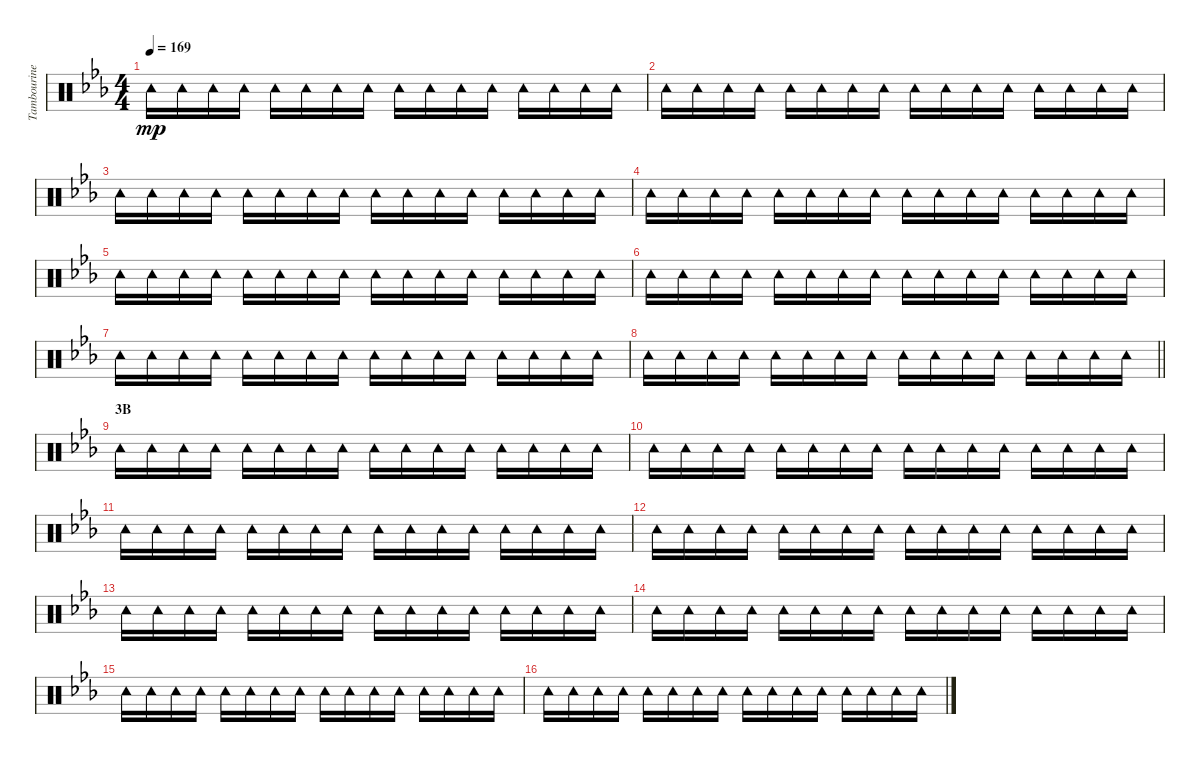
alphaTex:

\track ("Tambourine" "Tambourine") {instrument percussion}
\staff {score}
\articulation defaults
\ts (4 4)
\tempo 169
\clef neutral
\ks eb "Tambourine (hit)".16{dy mp} "Tambourine (hit)".16 "Tambourine (hit)".16 "Tambourine (hit)".16 "Tambourine (hit)".16 "Tambourine (hit)".16 "Tambourine (hit)".16 "Tambourine (hit)".16 "Tambourine (hit)".16 "Tambourine (hit)".16 "Tambourine (hit)".16 "Tambourine (hit)".16 "Tambourine (hit)".16 "Tambourine (hit)".16 "Tambourine (hit)".16 "Tambourine (hit)".16
|
"Tambourine (hit)".16 "Tambourine (hit)".16 "Tambourine (hit)".16 "Tambourine (hit)".16 "Tambourine (hit)".16 "Tambourine (hit)".16 "Tambourine (hit)".16 "Tambourine (hit)".16 "Tambourine (hit)".16 "Tambourine (hit)".16 "Tambourine (hit)".16 "Tambourine (hit)".16 "Tambourine (hit)".16 "Tambourine (hit)".16 "Tambourine (hit)".16 "Tambourine (hit)".16 |
"Tambourine (hit)".16 "Tambourine (hit)".16 "Tambourine (hit)".16 "Tambourine (hit)".16 "Tambourine (hit)".16 "Tambourine (hit)".16 "Tambourine (hit)".16 "Tambourine (hit)".16 "Tambourine (hit)".16 "Tambourine (hit)".16 "Tambourine (hit)".16 "Tambourine (hit)".16 "Tambourine (hit)".16 "Tambourine (hit)".16 "Tambourine (hit)".16 "Tambourine (hit)".16 |
"Tambourine (hit)".16 "Tambourine (hit)".16 "Tambourine (hit)".16 "Tambourine (hit)".16 "Tambourine (hit)".16 "Tambourine (hit)".16 "Tambourine (hit)".16 "Tambourine (hit)".16 "Tambourine (hit)".16 "Tambourine (hit)".16 "Tambourine (hit)".16 "Tambourine (hit)".16 "Tambourine (hit)".16 "Tambourine (hit)".16 "Tambourine (hit)".16 "Tambourine (hit)".16 |
"Tambourine (hit)".16 "Tambourine (hit)".16 "Tambourine (hit)".16 "Tambourine (hit)".16 "Tambourine (hit)".16 "Tambourine (hit)".16 "Tambourine (hit)".16 "Tambourine (hit)".16 "Tambourine (hit)".16 "Tambourine (hit)".16 "Tambourine (hit)".16 "Tambourine (hit)".16 "Tambourine (hit)".16 "Tambourine (hit)".16 "Tambourine (hit)".16 "Tambourine (hit)".16 |
"Tambourine (hit)".16 "Tambourine (hit)".16 "Tambourine (hit)".16 "Tambourine (hit)".16 "Tambourine (hit)".16 "Tambourine (hit)".16 "Tambourine (hit)".16 "Tambourine (hit)".16 "Tambourine (hit)".16 "Tambourine (hit)".16 "Tambourine (hit)".16 "Tambourine (hit)".16 "Tambourine (hit)".16 "Tambourine (hit)".16 "Tambourine (hit)".16 "Tambourine (hit)".16 |
"Tambourine (hit)".16 "Tambourine (hit)".16 "Tambourine (hit)".16 "Tambourine (hit)".16 "Tambourine (hit)".16 "Tambourine (hit)".16 "Tambourine (hit)".16 "Tambourine (hit)".16 "Tambourine (hit)".16 "Tambourine (hit)".16 "Tambourine (hit)".16 "Tambourine (hit)".16 "Tambourine (hit)".16 "Tambourine (hit)".16 "Tambourine (hit)".16 "Tambourine (hit)".16 |
\barLineRight lightlight "Tambourine (hit)".16 "Tambourine (hit)".16 "Tambourine (hit)".16 "Tambourine (hit)".16 "Tambourine (hit)".16 "Tambourine (hit)".16 "Tambourine (hit)".16 "Tambourine (hit)".16 "Tambourine (hit)".16 "Tambourine (hit)".16 "Tambourine (hit)".16 "Tambourine (hit)".16 "Tambourine (hit)".16 "Tambourine (hit)".16 "Tambourine (hit)".16 "Tambourine (hit)".16
|
\section ("" "3B")
"Tambourine (hit)".16 "Tambourine (hit)".16 "Tambourine (hit)".16 "Tambourine (hit)".16 "Tambourine (hit)".16 "Tambourine (hit)".16 "Tambourine (hit)".16 "Tambourine (hit)".16 "Tambourine (hit)".16 "Tambourine (hit)".16 "Tambourine (hit)".16 "Tambourine (hit)".16 "Tambourine (hit)".16 "Tambourine (hit)".16 "Tambourine (hit)".16 "Tambourine (hit)".16 |
"Tambourine (hit)".16 "Tambourine (hit)".16 "Tambourine (hit)".16 "Tambourine (hit)".16 "Tambourine (hit)".16 "Tambourine (hit)".16 "Tambourine (hit)".16 "Tambourine (hit)".16 "Tambourine (hit)".16 "Tambourine (hit)".16 "Tambourine (hit)".16 "Tambourine (hit)".16 "Tambourine (hit)".16 "Tambourine (hit)".16 "Tambourine (hit)".16 "Tambourine (hit)".16 |
"Tambourine (hit)".16 "Tambourine (hit)".16 "Tambourine (hit)".16 "Tambourine (hit)".16 "Tambourine (hit)".16 "Tambourine (hit)".16 "Tambourine (hit)".16 "Tambourine (hit)".16 "Tambourine (hit)".16 "Tambourine (hit)".16 "Tambourine (hit)".16 "Tambourine (hit)".16 "Tambourine (hit)".16 "Tambourine (hit)".16 "Tambourine (hit)".16 "Tambourine (hit)".16 |
"Tambourine (hit)".16 "Tambourine (hit)".16 "Tambourine (hit)".16 "Tambourine (hit)".16 "Tambourine (hit)".16 "Tambourine (hit)".16 "Tambourine (hit)".16 "Tambourine (hit)".16 "Tambourine (hit)".16 "Tambourine (hit)".16 "Tambourine (hit)".16 "Tambourine (hit)".16 "Tambourine (hit)".16 "Tambourine (hit)".16 "Tambourine (hit)".16 "Tambourine (hit)".16 |
"Tambourine (hit)".16 "Tambourine (hit)".16 "Tambourine (hit)".16 "Tambourine (hit)".16 "Tambourine (hit)".16 "Tambourine (hit)".16 "Tambourine (hit)".16 "Tambourine (hit)".16 "Tambourine (hit)".16 "Tambourine (hit)".16 "Tambourine (hit)".16 "Tambourine (hit)".16 "Tambourine (hit)".16 "Tambourine (hit)".16 "Tambourine (hit)".16 "Tambourine (hit)".16 |
"Tambourine (hit)".16 "Tambourine (hit)".16 "Tambourine (hit)".16 "Tambourine (hit)".16 "Tambourine (hit)".16 "Tambourine (hit)".16 "Tambourine (hit)".16 "Tambourine (hit)".16 "Tambourine (hit)".16 "Tambourine (hit)".16 "Tambourine (hit)".16 "Tambourine (hit)".16 "Tambourine (hit)".16 "Tambourine (hit)".16 "Tambourine (hit)".16 "Tambourine (hit)".16 |
"Tambourine (hit)".16 "Tambourine (hit)".16 "Tambourine (hit)".16 "Tambourine (hit)".16 "Tambourine (hit)".16 "Tambourine (hit)".16 "Tambourine (hit)".16 "Tambourine (hit)".16 "Tambourine (hit)".16 "Tambourine (hit)".16 "Tambourine (hit)".16 "Tambourine (hit)".16 "Tambourine (hit)".16 "Tambourine (hit)".16 "Tambourine (hit)".16 "Tambourine (hit)".16 |
"Tambourine (hit)".16 "Tambourine (hit)".16 "Tambourine (hit)".16 "Tambourine (hit)".16 "Tambourine (hit)".16 "Tambourine (hit)".16 "Tambourine (hit)".16 "Tambourine (hit)".16 "Tambourine (hit)".16 "Tambourine (hit)".16 "Tambourine (hit)".16 "Tambourine (hit)".16 "Tambourine (hit)".16 "Tambourine (hit)".16 "Tambourine (hit)".16 "Tambourine (hit)".16
